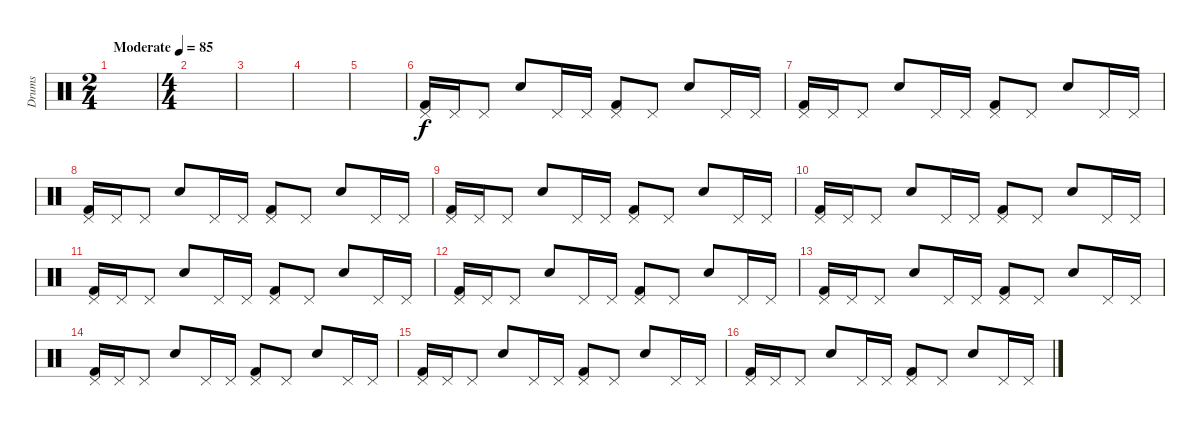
\track ("Drums" "Drums") {instrument percussion}
\staff {score}
\articulation defaults
\ts (2 4)
\tempo (85 "Moderate")
\clef neutral
\ks c
|
\ts (4 4)
|
|
|
|
("Pedal Hi-Hat (hit)" "Kick (hit) 2").16 "Pedal Hi-Hat (hit)".16 "Pedal Hi-Hat (hit)".8 "Snare (hit) 2".8 "Pedal Hi-Hat (hit)".16 "Pedal Hi-Hat (hit)".16 ("Pedal Hi-Hat (hit)" "Kick (hit) 2").8 "Pedal Hi-Hat (hit)".8 "Snare (hit) 2".8 "Pedal Hi-Hat (hit)".16 "Pedal Hi-Hat (hit)".16 |
("Pedal Hi-Hat (hit)" "Kick (hit) 2").16 "Pedal Hi-Hat (hit)".16 "Pedal Hi-Hat (hit)".8 "Snare (hit) 2".8 "Pedal Hi-Hat (hit)".16 "Pedal Hi-Hat (hit)".16 ("Pedal Hi-Hat (hit)" "Kick (hit) 2").8 "Pedal Hi-Hat (hit)".8 "Snare (hit) 2".8 "Pedal Hi-Hat (hit)".16 "Pedal Hi-Hat (hit)".16 |
("Pedal Hi-Hat (hit)" "Kick (hit) 2").16 "Pedal Hi-Hat (hit)".16 "Pedal Hi-Hat (hit)".8 "Snare (hit) 2".8 "Pedal Hi-Hat (hit)".16 "Pedal Hi-Hat (hit)".16 ("Pedal Hi-Hat (hit)" "Kick (hit) 2").8 "Pedal Hi-Hat (hit)".8 "Snare (hit) 2".8 "Pedal Hi-Hat (hit)".16 "Pedal Hi-Hat (hit)".16 |
("Pedal Hi-Hat (hit)" "Kick (hit) 2").16 "Pedal Hi-Hat (hit)".16 "Pedal Hi-Hat (hit)".8 "Snare (hit) 2".8 "Pedal Hi-Hat (hit)".16 "Pedal Hi-Hat (hit)".16 ("Pedal Hi-Hat (hit)" "Kick (hit) 2").8 "Pedal Hi-Hat (hit)".8 "Snare (hit) 2".8 "Pedal Hi-Hat (hit)".16 "Pedal Hi-Hat (hit)".16 |
("Pedal Hi-Hat (hit)" "Kick (hit) 2").16 "Pedal Hi-Hat (hit)".16 "Pedal Hi-Hat (hit)".8 "Snare (hit) 2".8 "Pedal Hi-Hat (hit)".16 "Pedal Hi-Hat (hit)".16 ("Pedal Hi-Hat (hit)" "Kick (hit) 2").8 "Pedal Hi-Hat (hit)".8 "Snare (hit) 2".8 "Pedal Hi-Hat (hit)".16 "Pedal Hi-Hat (hit)".16 |
("Pedal Hi-Hat (hit)" "Kick (hit) 2").16 "Pedal Hi-Hat (hit)".16 "Pedal Hi-Hat (hit)".8 "Snare (hit) 2".8 "Pedal Hi-Hat (hit)".16 "Pedal Hi-Hat (hit)".16 ("Pedal Hi-Hat (hit)" "Kick (hit) 2").8 "Pedal Hi-Hat (hit)".8 "Snare (hit) 2".8 "Pedal Hi-Hat (hit)".16 "Pedal Hi-Hat (hit)".16 |
("Pedal Hi-Hat (hit)" "Kick (hit) 2").16 "Pedal Hi-Hat (hit)".16 "Pedal Hi-Hat (hit)".8 "Snare (hit) 2".8 "Pedal Hi-Hat (hit)".16 "Pedal Hi-Hat (hit)".16 ("Pedal Hi-Hat (hit)" "Kick (hit) 2").8 "Pedal Hi-Hat (hit)".8 "Snare (hit) 2".8 "Pedal Hi-Hat (hit)".16 "Pedal Hi-Hat (hit)".16 |
("Pedal Hi-Hat (hit)" "Kick (hit) 2").16 "Pedal Hi-Hat (hit)".16 "Pedal Hi-Hat (hit)".8 "Snare (hit) 2".8 "Pedal Hi-Hat (hit)".16 "Pedal Hi-Hat (hit)".16 ("Pedal Hi-Hat (hit)" "Kick (hit) 2").8 "Pedal Hi-Hat (hit)".8 "Snare (hit) 2".8 "Pedal Hi-Hat (hit)".16 "Pedal Hi-Hat (hit)".16 |
("Pedal Hi-Hat (hit)" "Kick (hit) 2").16 "Pedal Hi-Hat (hit)".16 "Pedal Hi-Hat (hit)".8 "Snare (hit) 2".8 "Pedal Hi-Hat (hit)".16 "Pedal Hi-Hat (hit)".16 ("Pedal Hi-Hat (hit)" "Kick (hit) 2").8 "Pedal Hi-Hat (hit)".8 "Snare (hit) 2".8 "Pedal Hi-Hat (hit)".16 "Pedal Hi-Hat (hit)".16 |
("Pedal Hi-Hat (hit)" "Kick (hit) 2").16 "Pedal Hi-Hat (hit)".16 "Pedal Hi-Hat (hit)".8 "Snare (hit) 2".8 "Pedal Hi-Hat (hit)".16 "Pedal Hi-Hat (hit)".16 ("Pedal Hi-Hat (hit)" "Kick (hit) 2").8 "Pedal Hi-Hat (hit)".8 "Snare (hit) 2".8 "Pedal Hi-Hat (hit)".16 "Pedal Hi-Hat (hit)".16 |
("Pedal Hi-Hat (hit)" "Kick (hit) 2").16 "Pedal Hi-Hat (hit)".16 "Pedal Hi-Hat (hit)".8 "Snare (hit) 2".8 "Pedal Hi-Hat (hit)".16 "Pedal Hi-Hat (hit)".16 ("Pedal Hi-Hat (hit)" "Kick (hit) 2").8 "Pedal Hi-Hat (hit)".8 "Snare (hit) 2".8 "Pedal Hi-Hat (hit)".16 "Pedal Hi-Hat (hit)".16
